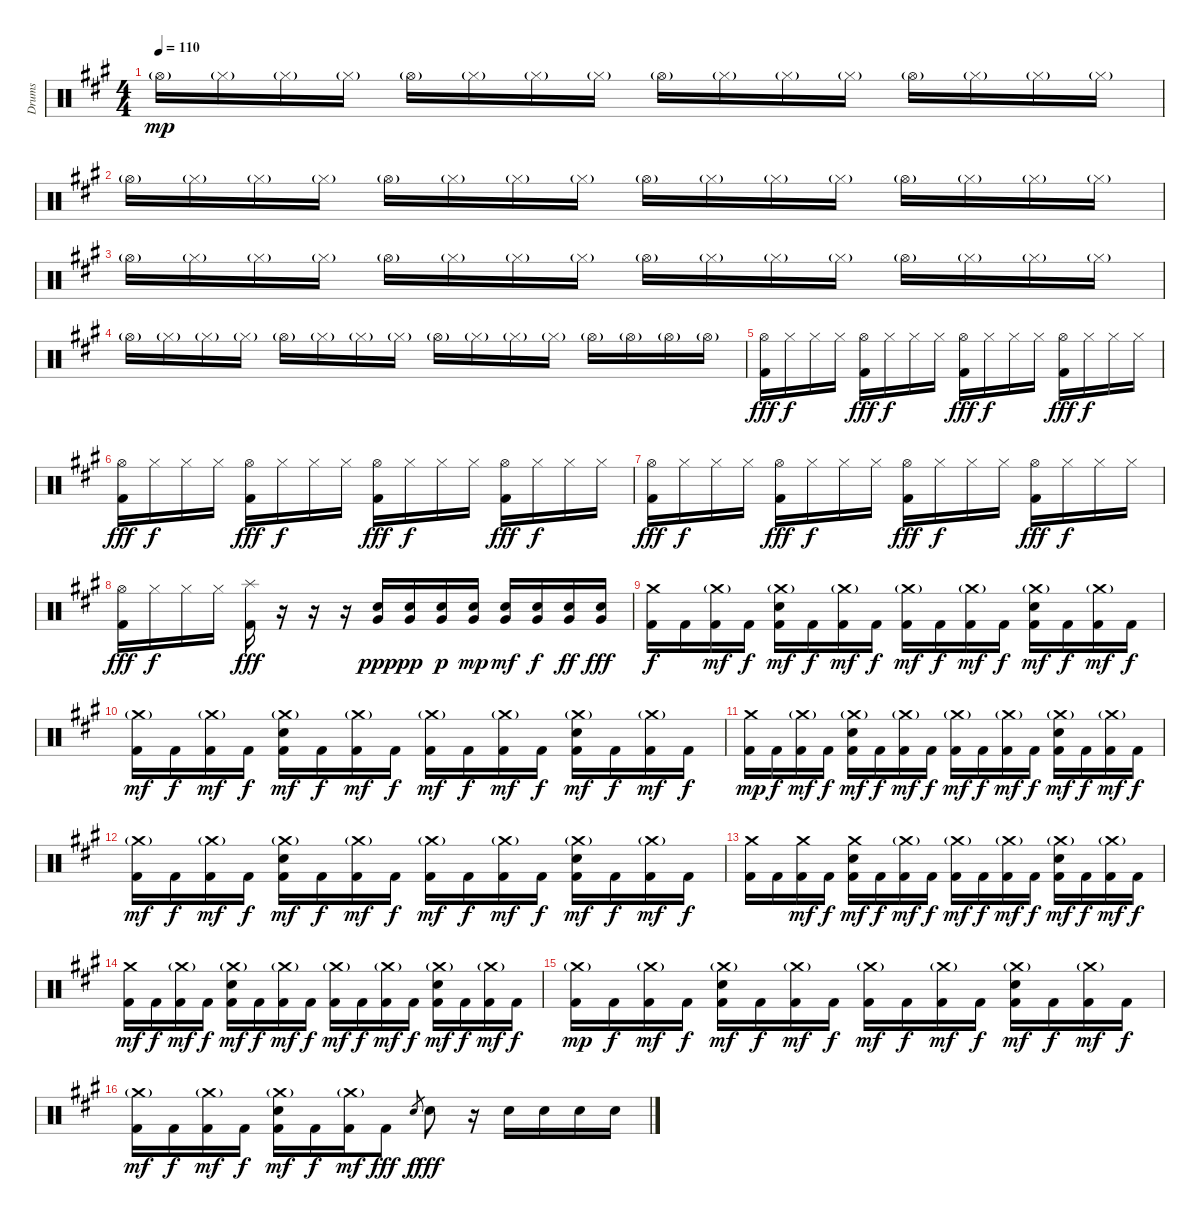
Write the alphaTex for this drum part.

\track ("Drums" "Drums") {instrument percussion}
\staff {score}
\articulation defaults
\ts (4 4)
\tempo 110
\clef neutral
\ks a "Hi-Hat (open)"{g}.16{dy mp} "Hi-Hat (closed)"{g}.16 "Hi-Hat (closed)"{g}.16 "Hi-Hat (closed)"{g}.16 "Hi-Hat (open)"{g}.16 "Hi-Hat (closed)"{g}.16 "Hi-Hat (closed)"{g}.16 "Hi-Hat (closed)"{g}.16 "Hi-Hat (open)"{g}.16 "Hi-Hat (closed)"{g}.16 "Hi-Hat (closed)"{g}.16 "Hi-Hat (closed)"{g}.16 "Hi-Hat (open)"{g}.16 "Hi-Hat (closed)"{g}.16 "Hi-Hat (closed)"{g}.16 "Hi-Hat (closed)"{g}.16
|
"Hi-Hat (open)"{g}.16 "Hi-Hat (closed)"{g}.16 "Hi-Hat (closed)"{g}.16 "Hi-Hat (closed)"{g}.16 "Hi-Hat (open)"{g}.16 "Hi-Hat (closed)"{g}.16 "Hi-Hat (closed)"{g}.16 "Hi-Hat (closed)"{g}.16 "Hi-Hat (open)"{g}.16 "Hi-Hat (closed)"{g}.16 "Hi-Hat (closed)"{g}.16 "Hi-Hat (closed)"{g}.16 "Hi-Hat (open)"{g}.16 "Hi-Hat (closed)"{g}.16 "Hi-Hat (closed)"{g}.16 "Hi-Hat (closed)"{g}.16 |
"Hi-Hat (open)"{g}.16 "Hi-Hat (closed)"{g}.16 "Hi-Hat (closed)"{g}.16 "Hi-Hat (closed)"{g}.16 "Hi-Hat (open)"{g}.16 "Hi-Hat (closed)"{g}.16 "Hi-Hat (closed)"{g}.16 "Hi-Hat (closed)"{g}.16 "Hi-Hat (open)"{g}.16 "Hi-Hat (closed)"{g}.16 "Hi-Hat (closed)"{g}.16 "Hi-Hat (closed)"{g}.16 "Hi-Hat (open)"{g}.16 "Hi-Hat (closed)"{g}.16 "Hi-Hat (closed)"{g}.16 "Hi-Hat (closed)"{g}.16 |
"Hi-Hat (open)"{g}.16 "Hi-Hat (closed)"{g}.16 "Hi-Hat (closed)"{g}.16 "Hi-Hat (closed)"{g}.16 "Hi-Hat (open)"{g}.16 "Hi-Hat (closed)"{g}.16 "Hi-Hat (closed)"{g}.16 "Hi-Hat (closed)"{g}.16 "Hi-Hat (open)"{g}.16 "Hi-Hat (closed)"{g}.16 "Hi-Hat (closed)"{g}.16 "Hi-Hat (closed)"{g}.16 "Hi-Hat (open)"{g}.16 "Hi-Hat (open)"{g}.16 "Hi-Hat (open)"{g}.16 "Hi-Hat (open)"{g}.16 |
("Hi-Hat (open)" "Kick (hit) 2").16{dy fff} "Hi-Hat (closed)".16{dy f} "Hi-Hat (closed)".16 "Hi-Hat (closed)".16 ("Hi-Hat (open)" "Kick (hit) 2").16{dy fff} "Hi-Hat (closed)".16{dy f} "Hi-Hat (closed)".16 "Hi-Hat (closed)".16 ("Hi-Hat (open)" "Kick (hit) 2").16{dy fff} "Hi-Hat (closed)".16{dy f} "Hi-Hat (closed)".16 "Hi-Hat (closed)".16 ("Hi-Hat (open)" "Kick (hit) 2").16{dy fff} "Hi-Hat (closed)".16{dy f} "Hi-Hat (closed)".16 "Hi-Hat (closed)".16 |
("Hi-Hat (open)" "Kick (hit) 2").16{dy fff} "Hi-Hat (closed)".16{dy f} "Hi-Hat (closed)".16 "Hi-Hat (closed)".16 ("Hi-Hat (open)" "Kick (hit) 2").16{dy fff} "Hi-Hat (closed)".16{dy f} "Hi-Hat (closed)".16 "Hi-Hat (closed)".16 ("Hi-Hat (open)" "Kick (hit) 2").16{dy fff} "Hi-Hat (closed)".16{dy f} "Hi-Hat (closed)".16 "Hi-Hat (closed)".16 ("Hi-Hat (open)" "Kick (hit) 2").16{dy fff} "Hi-Hat (closed)".16{dy f} "Hi-Hat (closed)".16 "Hi-Hat (closed)".16 |
("Hi-Hat (open)" "Kick (hit) 2").16{dy fff} "Hi-Hat (closed)".16{dy f} "Hi-Hat (closed)".16 "Hi-Hat (closed)".16 ("Hi-Hat (open)" "Kick (hit) 2").16{dy fff} "Hi-Hat (closed)".16{dy f} "Hi-Hat (closed)".16 "Hi-Hat (closed)".16 ("Hi-Hat (open)" "Kick (hit) 2").16{dy fff} "Hi-Hat (closed)".16{dy f} "Hi-Hat (closed)".16 "Hi-Hat (closed)".16 ("Hi-Hat (open)" "Kick (hit) 2").16{dy fff} "Hi-Hat (closed)".16{dy f} "Hi-Hat (closed)".16 "Hi-Hat (closed)".16 |
("Hi-Hat (open)" "Kick (hit) 2").16{dy fff} "Hi-Hat (closed)".16{dy f} "Hi-Hat (closed)".16 "Hi-Hat (closed)".16 ("Splash (hit)" "Kick (hit) 2").16{dy fff} r.16 r.16 r.16 ("Snare (hit) 2" "Very Low Tom (hit)").16{dy ppp} ("Snare (hit) 2" "Very Low Tom (hit)").16{dy pp} ("Snare (hit) 2" "Very Low Tom (hit)").16{dy p} ("Snare (hit) 2" "Very Low Tom (hit)").16{dy mp} ("Snare (hit) 2" "Very Low Tom (hit)").16{dy mf} ("Snare (hit) 2" "Very Low Tom (hit)").16{dy f} ("Snare (hit) 2" "Very Low Tom (hit)").16{dy ff} ("Snare (hit) 2" "Very Low Tom (hit)").16{dy fff} |
("Crash medium (hit)" "Kick (hit) 2").16{dy f} "Kick (hit) 2".16 ("Crash medium (hit)"{g} "Kick (hit) 2").16{dy mf} "Kick (hit) 2".16{dy f} ("Crash medium (hit)"{g} "Electric Snare (hit)" "Kick (hit) 2").16{dy mf} "Kick (hit) 2".16{dy f} ("Crash medium (hit)"{g} "Kick (hit) 2").16{dy mf} "Kick (hit) 2".16{dy f} ("Crash medium (hit)"{g} "Kick (hit) 2").16{dy mf} "Kick (hit) 2".16{dy f} ("Crash medium (hit)"{g} "Kick (hit) 2").16{dy mf} "Kick (hit) 2".16{dy f} ("Crash medium (hit)"{g} "Electric Snare (hit)" "Kick (hit) 2").16{dy mf} "Kick (hit) 2".16{dy f} ("Crash medium (hit)"{g} "Kick (hit) 2").16{dy mf} "Kick (hit) 2".16{dy f} |
("Crash medium (hit)"{g} "Kick (hit) 2").16{dy mf} "Kick (hit) 2".16{dy f} ("Crash medium (hit)"{g} "Kick (hit) 2").16{dy mf} "Kick (hit) 2".16{dy f} ("Crash medium (hit)"{g} "Electric Snare (hit)" "Kick (hit) 2").16{dy mf} "Kick (hit) 2".16{dy f} ("Crash medium (hit)"{g} "Kick (hit) 2").16{dy mf} "Kick (hit) 2".16{dy f} ("Crash medium (hit)"{g} "Kick (hit) 2").16{dy mf} "Kick (hit) 2".16{dy f} ("Crash medium (hit)"{g} "Kick (hit) 2").16{dy mf} "Kick (hit) 2".16{dy f} ("Crash medium (hit)"{g} "Electric Snare (hit)" "Kick (hit) 2").16{dy mf} "Kick (hit) 2".16{dy f} ("Crash medium (hit)"{g} "Kick (hit) 2").16{dy mf} "Kick (hit) 2".16{dy f} |
("Crash medium (hit)" "Kick (hit) 2").16{dy mp} "Kick (hit) 2".16{dy f} ("Crash medium (hit)"{g} "Kick (hit) 2").16{dy mf} "Kick (hit) 2".16{dy f} ("Crash medium (hit)"{g} "Electric Snare (hit)" "Kick (hit) 2").16{dy mf} "Kick (hit) 2".16{dy f} ("Crash medium (hit)"{g} "Kick (hit) 2").16{dy mf} "Kick (hit) 2".16{dy f} ("Crash medium (hit)"{g} "Kick (hit) 2").16{dy mf} "Kick (hit) 2".16{dy f} ("Crash medium (hit)"{g} "Kick (hit) 2").16{dy mf} "Kick (hit) 2".16{dy f} ("Crash medium (hit)"{g} "Electric Snare (hit)" "Kick (hit) 2").16{dy mf} "Kick (hit) 2".16{dy f} ("Crash medium (hit)"{g} "Kick (hit) 2").16{dy mf} "Kick (hit) 2".16{dy f} |
("Crash medium (hit)"{g} "Kick (hit) 2").16{dy mf} "Kick (hit) 2".16{dy f} ("Crash medium (hit)"{g} "Kick (hit) 2").16{dy mf} "Kick (hit) 2".16{dy f} ("Crash medium (hit)"{g} "Electric Snare (hit)" "Kick (hit) 2").16{dy mf} "Kick (hit) 2".16{dy f} ("Crash medium (hit)"{g} "Kick (hit) 2").16{dy mf} "Kick (hit) 2".16{dy f} ("Crash medium (hit)"{g} "Kick (hit) 2").16{dy mf} "Kick (hit) 2".16{dy f} ("Crash medium (hit)"{g} "Kick (hit) 2").16{dy mf} "Kick (hit) 2".16{dy f} ("Crash medium (hit)"{g} "Electric Snare (hit)" "Kick (hit) 2").16{dy mf} "Kick (hit) 2".16{dy f} ("Crash medium (hit)"{g} "Kick (hit) 2").16{dy mf} "Kick (hit) 2".16{dy f} |
("Crash medium (hit)" "Kick (hit) 2").16 "Kick (hit) 2".16 ("Crash medium (hit)" "Kick (hit) 2").16{dy mf} "Kick (hit) 2".16{dy f} ("Crash medium (hit)" "Electric Snare (hit)" "Kick (hit) 2").16{dy mf} "Kick (hit) 2".16{dy f} ("Crash medium (hit)"{g} "Kick (hit) 2").16{dy mf} "Kick (hit) 2".16{dy f} ("Crash medium (hit)"{g} "Kick (hit) 2").16{dy mf} "Kick (hit) 2".16{dy f} ("Crash medium (hit)"{g} "Kick (hit) 2").16{dy mf} "Kick (hit) 2".16{dy f} ("Crash medium (hit)"{g} "Electric Snare (hit)" "Kick (hit) 2").16{dy mf} "Kick (hit) 2".16{dy f} ("Crash medium (hit)"{g} "Kick (hit) 2").16{dy mf} "Kick (hit) 2".16{dy f} |
("Crash medium (hit)" "Kick (hit) 2").16{dy mf} "Kick (hit) 2".16{dy f} ("Crash medium (hit)"{g} "Kick (hit) 2").16{dy mf} "Kick (hit) 2".16{dy f} ("Crash medium (hit)"{g} "Electric Snare (hit)" "Kick (hit) 2").16{dy mf} "Kick (hit) 2".16{dy f} ("Crash medium (hit)"{g} "Kick (hit) 2").16{dy mf} "Kick (hit) 2".16{dy f} ("Crash medium (hit)"{g} "Kick (hit) 2").16{dy mf} "Kick (hit) 2".16{dy f} ("Crash medium (hit)"{g} "Kick (hit) 2").16{dy mf} "Kick (hit) 2".16{dy f} ("Crash medium (hit)"{g} "Electric Snare (hit)" "Kick (hit) 2").16{dy mf} "Kick (hit) 2".16{dy f} ("Crash medium (hit)"{g} "Kick (hit) 2").16{dy mf} "Kick (hit) 2".16{dy f} |
("Crash medium (hit)"{g} "Kick (hit) 2").16{dy mp} "Kick (hit) 2".16{dy f} ("Crash medium (hit)"{g} "Kick (hit) 2").16{dy mf} "Kick (hit) 2".16{dy f} ("Crash medium (hit)"{g} "Electric Snare (hit)" "Kick (hit) 2").16{dy mf} "Kick (hit) 2".16{dy f} ("Crash medium (hit)"{g} "Kick (hit) 2").16{dy mf} "Kick (hit) 2".16{dy f} ("Crash medium (hit)"{g} "Kick (hit) 2").16{dy mf} "Kick (hit) 2".16{dy f} ("Crash medium (hit)"{g} "Kick (hit) 2").16{dy mf} "Kick (hit) 2".16{dy f} ("Crash medium (hit)"{g} "Electric Snare (hit)" "Kick (hit) 2").16{dy mf} "Kick (hit) 2".16{dy f} ("Crash medium (hit)"{g} "Kick (hit) 2").16{dy mf} "Kick (hit) 2".16{dy f} |
("Crash medium (hit)"{g} "Kick (hit) 2").16{dy mf} "Kick (hit) 2".16{dy f} ("Crash medium (hit)"{g} "Kick (hit) 2").16{dy mf} "Kick (hit) 2".16{dy f} ("Crash medium (hit)"{g} "Electric Snare (hit)" "Kick (hit) 2").16{dy mf} "Kick (hit) 2".16{dy f} ("Crash medium (hit)"{g} "Kick (hit) 2").16{dy mf} "Kick (hit) 2".8{dy fff} "Electric Snare (hit)".8{gr dy f} "Electric Snare (hit)".8{dy fff} r.16 "Electric Snare (hit)".16 "Electric Snare (hit)".16 "Electric Snare (hit)".16 "Electric Snare (hit)".16
